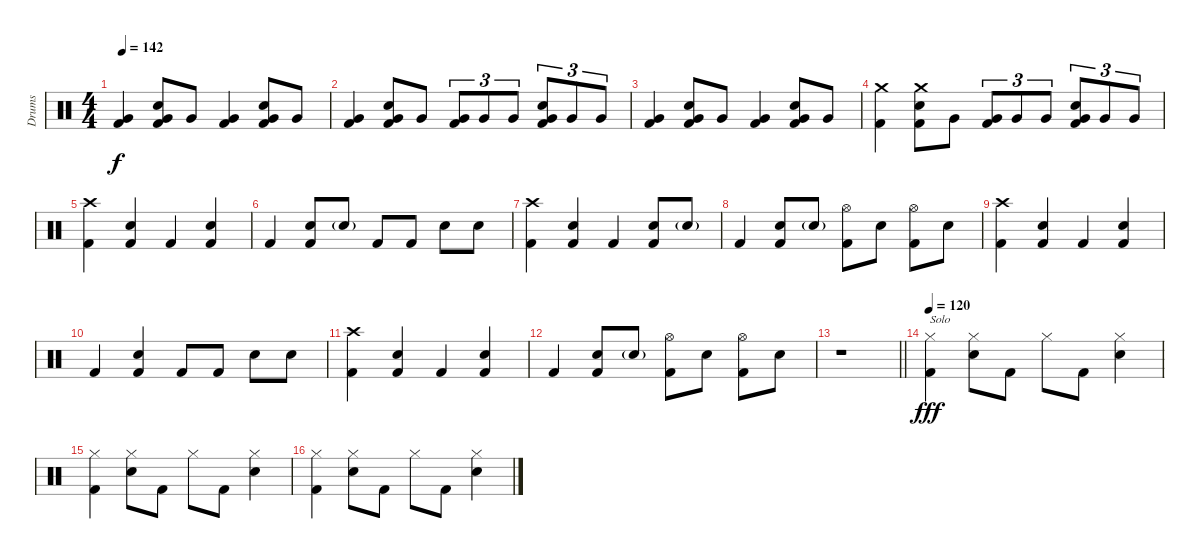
\track ("Drums" "Drums") {instrument percussion}
\staff {score}
\articulation defaults
\ts (4 4)
\tempo 142
\clef neutral
\ks c
("Kick (hit) 2" "Very Low Tom (hit)").4{dy f} ("Kick (hit) 2" "Very Low Tom (hit)" "Snare (hit) 2").8 "Very Low Tom (hit)".8 ("Kick (hit) 2" "Very Low Tom (hit)").4 ("Kick (hit) 2" "Very Low Tom (hit)" "Snare (hit) 2").8 "Very Low Tom (hit)".8 |
("Kick (hit) 2" "Very Low Tom (hit)").4 ("Kick (hit) 2" "Very Low Tom (hit)" "Snare (hit) 2").8 "Very Low Tom (hit)".8 ("Kick (hit) 2" "Very Low Tom (hit)").8{tu (3 2)} "Very Low Tom (hit)".8{tu (3 2)} "Very Low Tom (hit)".8{tu (3 2)} ("Kick (hit) 2" "Very Low Tom (hit)" "Snare (hit) 2").8{tu (3 2)} "Very Low Tom (hit)".8{tu (3 2)} "Very Low Tom (hit)".8{tu (3 2)} |
("Kick (hit) 2" "Very Low Tom (hit)").4 ("Kick (hit) 2" "Very Low Tom (hit)" "Snare (hit) 2").8 "Very Low Tom (hit)".8 ("Kick (hit) 2" "Very Low Tom (hit)").4 ("Kick (hit) 2" "Very Low Tom (hit)" "Snare (hit) 2").8 "Very Low Tom (hit)".8 |
("Kick (hit) 2" "Crash medium (hit)").4 ("Kick (hit) 2" "Snare (hit) 2" "Crash medium (hit)").8 "Very Low Tom (hit)".8 ("Kick (hit) 2" "Very Low Tom (hit)").8{tu (3 2)} "Very Low Tom (hit)".8{tu (3 2)} "Very Low Tom (hit)".8{tu (3 2)} ("Kick (hit) 2" "Very Low Tom (hit)" "Snare (hit) 2").8{tu (3 2)} "Very Low Tom (hit)".8{tu (3 2)} "Very Low Tom (hit)".8{tu (3 2)} |
("Kick (hit) 2" "Crash high (hit)").4 ("Kick (hit) 2" "Snare (hit) 2").4 "Kick (hit) 2".4 ("Kick (hit) 2" "Snare (hit) 2").4 |
"Kick (hit) 2".4 ("Kick (hit) 2" "Snare (hit) 2").8 "Snare (hit) 2"{g}.8 "Kick (hit) 2".8 "Kick (hit) 2".8 "Snare (hit) 2".8 "Snare (hit) 2".8 |
("Kick (hit) 2" "Crash high (hit)").4 ("Kick (hit) 2" "Snare (hit) 2").4 "Kick (hit) 2".4 ("Kick (hit) 2" "Snare (hit) 2").8 "Snare (hit) 2"{g}.8 |
"Kick (hit) 2".4 ("Kick (hit) 2" "Snare (hit) 2").8 "Snare (hit) 2"{g}.8 ("Kick (hit) 2" "Hi-Hat (open)").8 "Snare (hit) 2".8 ("Hi-Hat (open)" "Kick (hit) 2").8 "Snare (hit) 2".8 |
("Kick (hit) 2" "Crash high (hit)").4 ("Kick (hit) 2" "Snare (hit) 2").4 "Kick (hit) 2".4 ("Kick (hit) 2" "Snare (hit) 2").4 |
"Kick (hit) 2".4 ("Kick (hit) 2" "Snare (hit) 2").4 "Kick (hit) 2".8 "Kick (hit) 2".8 "Snare (hit) 2".8 "Snare (hit) 2".8 |
("Kick (hit) 2" "Crash high (hit)").4 ("Kick (hit) 2" "Snare (hit) 2").4 "Kick (hit) 2".4 ("Kick (hit) 2" "Snare (hit) 2").4 |
"Kick (hit) 2".4 ("Kick (hit) 2" "Snare (hit) 2").8 "Snare (hit) 2"{g}.8 ("Kick (hit) 2" "Hi-Hat (open)").8 "Snare (hit) 2".8 ("Hi-Hat (open)" "Kick (hit) 2").8 "Snare (hit) 2".8 |
\barLineRight lightlight
r.1 |
\tempo 120
("Hi-Hat (closed)" "Kick (hit) 2").4{txt "Solo" dy fff} ("Hi-Hat (closed)" "Snare (hit) 2").8 "Kick (hit) 2".8 "Hi-Hat (closed)".8 "Kick (hit) 2".8 ("Hi-Hat (closed)" "Snare (hit) 2").4 |
("Hi-Hat (closed)" "Kick (hit) 2").4 ("Hi-Hat (closed)" "Snare (hit) 2").8 "Kick (hit) 2".8 "Hi-Hat (closed)".8 "Kick (hit) 2".8 ("Hi-Hat (closed)" "Snare (hit) 2").4 |
("Hi-Hat (closed)" "Kick (hit) 2").4 ("Hi-Hat (closed)" "Snare (hit) 2").8 "Kick (hit) 2".8 "Hi-Hat (closed)".8 "Kick (hit) 2".8 ("Hi-Hat (closed)" "Snare (hit) 2").4
